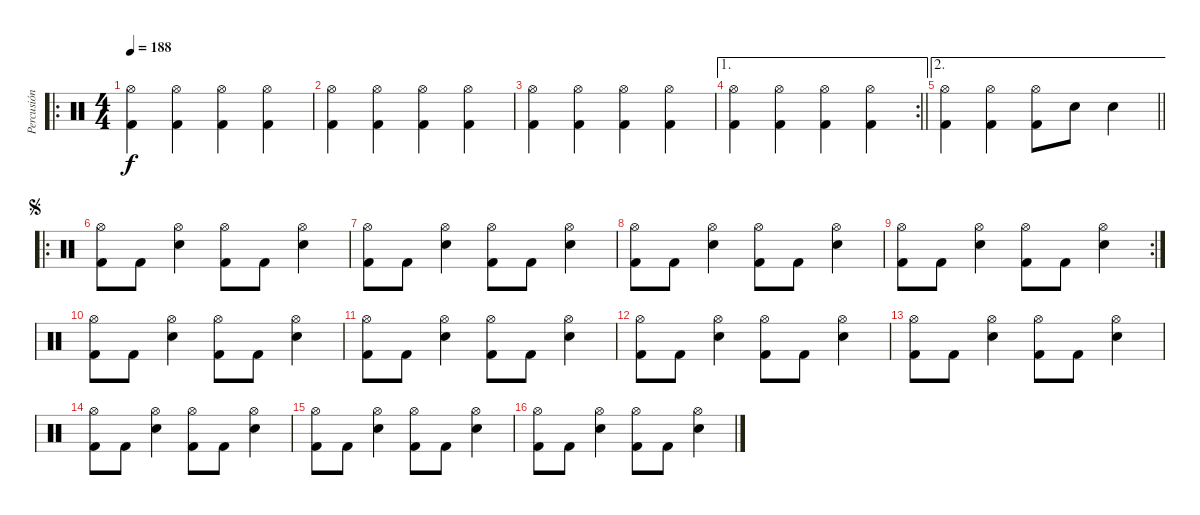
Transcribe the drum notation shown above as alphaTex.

\track ("Percusión" "Percusión") {instrument percussion}
\staff {score}
\articulation defaults
\ro
\ts (4 4)
\tempo 188
\clef neutral
\ks c
("Kick (hit) 2" "Hi-Hat (open)").4{dy f} ("Kick (hit) 2" "Hi-Hat (open)").4 ("Kick (hit) 2" "Hi-Hat (open)").4 ("Kick (hit) 2" "Hi-Hat (open)").4 |
("Kick (hit) 2" "Hi-Hat (open)").4 ("Kick (hit) 2" "Hi-Hat (open)").4 ("Kick (hit) 2" "Hi-Hat (open)").4 ("Kick (hit) 2" "Hi-Hat (open)").4 |
("Kick (hit) 2" "Hi-Hat (open)").4 ("Kick (hit) 2" "Hi-Hat (open)").4 ("Kick (hit) 2" "Hi-Hat (open)").4 ("Kick (hit) 2" "Hi-Hat (open)").4 |
\ae 1
\rc 2
\barLineRight lightlight
("Kick (hit) 2" "Hi-Hat (open)").4 ("Kick (hit) 2" "Hi-Hat (open)").4 ("Kick (hit) 2" "Hi-Hat (open)").4 ("Kick (hit) 2" "Hi-Hat (open)").4 |
\ae 2
\barLineRight lightlight
("Kick (hit) 2" "Hi-Hat (open)").4 ("Kick (hit) 2" "Hi-Hat (open)").4 ("Kick (hit) 2" "Hi-Hat (open)").8 "Electric Snare (hit)".8 "Electric Snare (hit)".4 |
\ro
\jump segno
("Kick (hit) 2" "Hi-Hat (open)").8 "Kick (hit) 2".8 ("Electric Snare (hit)" "Hi-Hat (open)").4 ("Kick (hit) 2" "Hi-Hat (open)").8 "Kick (hit) 2".8 ("Electric Snare (hit)" "Hi-Hat (open)").4 |
("Kick (hit) 2" "Hi-Hat (open)").8 "Kick (hit) 2".8 ("Electric Snare (hit)" "Hi-Hat (open)").4 ("Kick (hit) 2" "Hi-Hat (open)").8 "Kick (hit) 2".8 ("Electric Snare (hit)" "Hi-Hat (open)").4 |
("Kick (hit) 2" "Hi-Hat (open)").8 "Kick (hit) 2".8 ("Electric Snare (hit)" "Hi-Hat (open)").4 ("Kick (hit) 2" "Hi-Hat (open)").8 "Kick (hit) 2".8 ("Electric Snare (hit)" "Hi-Hat (open)").4 |
\rc 2
("Kick (hit) 2" "Hi-Hat (open)").8 "Kick (hit) 2".8 ("Electric Snare (hit)" "Hi-Hat (open)").4 ("Kick (hit) 2" "Hi-Hat (open)").8 "Kick (hit) 2".8 ("Electric Snare (hit)" "Hi-Hat (open)").4 |
("Kick (hit) 2" "Hi-Hat (open)").8 "Kick (hit) 2".8 ("Electric Snare (hit)" "Hi-Hat (open)").4 ("Kick (hit) 2" "Hi-Hat (open)").8 "Kick (hit) 2".8 ("Electric Snare (hit)" "Hi-Hat (open)").4 |
("Kick (hit) 2" "Hi-Hat (open)").8 "Kick (hit) 2".8 ("Electric Snare (hit)" "Hi-Hat (open)").4 ("Kick (hit) 2" "Hi-Hat (open)").8 "Kick (hit) 2".8 ("Electric Snare (hit)" "Hi-Hat (open)").4 |
("Kick (hit) 2" "Hi-Hat (open)").8 "Kick (hit) 2".8 ("Electric Snare (hit)" "Hi-Hat (open)").4 ("Kick (hit) 2" "Hi-Hat (open)").8 "Kick (hit) 2".8 ("Electric Snare (hit)" "Hi-Hat (open)").4 |
("Kick (hit) 2" "Hi-Hat (open)").8 "Kick (hit) 2".8 ("Electric Snare (hit)" "Hi-Hat (open)").4 ("Kick (hit) 2" "Hi-Hat (open)").8 "Kick (hit) 2".8 ("Electric Snare (hit)" "Hi-Hat (open)").4 |
("Kick (hit) 2" "Hi-Hat (open)").8 "Kick (hit) 2".8 ("Electric Snare (hit)" "Hi-Hat (open)").4 ("Kick (hit) 2" "Hi-Hat (open)").8 "Kick (hit) 2".8 ("Electric Snare (hit)" "Hi-Hat (open)").4 |
("Kick (hit) 2" "Hi-Hat (open)").8 "Kick (hit) 2".8 ("Electric Snare (hit)" "Hi-Hat (open)").4 ("Kick (hit) 2" "Hi-Hat (open)").8 "Kick (hit) 2".8 ("Electric Snare (hit)" "Hi-Hat (open)").4 |
("Kick (hit) 2" "Hi-Hat (open)").8 "Kick (hit) 2".8 ("Electric Snare (hit)" "Hi-Hat (open)").4 ("Kick (hit) 2" "Hi-Hat (open)").8 "Kick (hit) 2".8 ("Electric Snare (hit)" "Hi-Hat (open)").4
